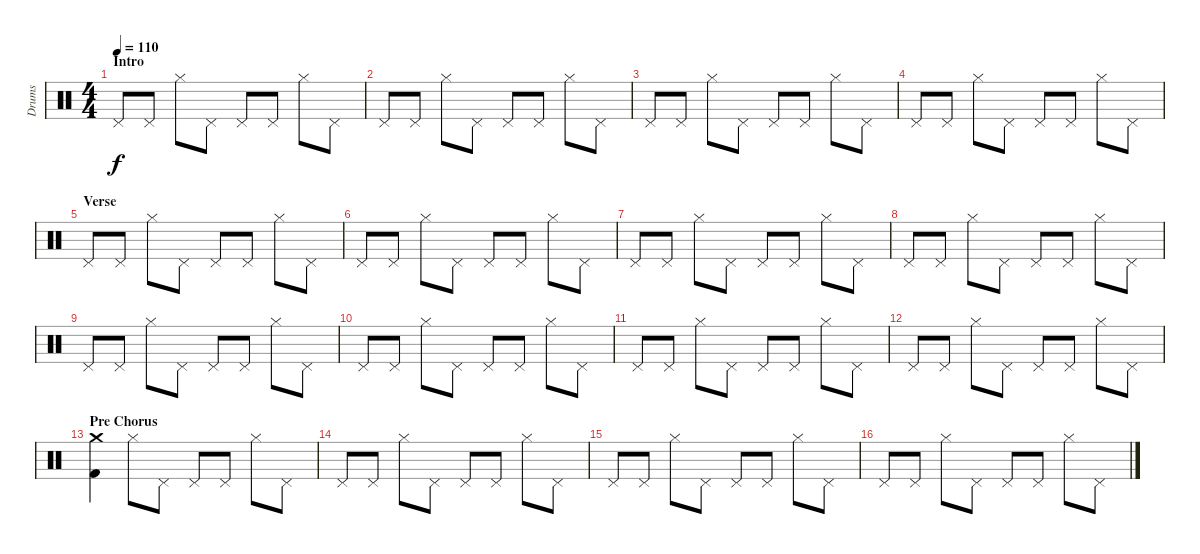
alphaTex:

\track ("Drums" "Drums") {instrument percussion}
\staff {score}
\articulation defaults
\ts (4 4)
\section ("" "Intro")
\tempo 110
\clef neutral
\ks c "Pedal Hi-Hat (hit)".8{dy f} "Pedal Hi-Hat (hit)".8 "Hi-Hat (closed)".8 "Pedal Hi-Hat (hit)".8 "Pedal Hi-Hat (hit)".8 "Pedal Hi-Hat (hit)".8 "Hi-Hat (closed)".8 "Pedal Hi-Hat (hit)".8
|
"Pedal Hi-Hat (hit)".8 "Pedal Hi-Hat (hit)".8 "Hi-Hat (closed)".8 "Pedal Hi-Hat (hit)".8 "Pedal Hi-Hat (hit)".8 "Pedal Hi-Hat (hit)".8 "Hi-Hat (closed)".8 "Pedal Hi-Hat (hit)".8 |
"Pedal Hi-Hat (hit)".8 "Pedal Hi-Hat (hit)".8 "Hi-Hat (closed)".8 "Pedal Hi-Hat (hit)".8 "Pedal Hi-Hat (hit)".8 "Pedal Hi-Hat (hit)".8 "Hi-Hat (closed)".8 "Pedal Hi-Hat (hit)".8 |
"Pedal Hi-Hat (hit)".8 "Pedal Hi-Hat (hit)".8 "Hi-Hat (closed)".8 "Pedal Hi-Hat (hit)".8 "Pedal Hi-Hat (hit)".8 "Pedal Hi-Hat (hit)".8 "Hi-Hat (closed)".8 "Pedal Hi-Hat (hit)".8 |
\section ("" "Verse")
"Pedal Hi-Hat (hit)".8 "Pedal Hi-Hat (hit)".8 "Hi-Hat (closed)".8 "Pedal Hi-Hat (hit)".8 "Pedal Hi-Hat (hit)".8 "Pedal Hi-Hat (hit)".8 "Hi-Hat (closed)".8 "Pedal Hi-Hat (hit)".8 |
"Pedal Hi-Hat (hit)".8 "Pedal Hi-Hat (hit)".8 "Hi-Hat (closed)".8 "Pedal Hi-Hat (hit)".8 "Pedal Hi-Hat (hit)".8 "Pedal Hi-Hat (hit)".8 "Hi-Hat (closed)".8 "Pedal Hi-Hat (hit)".8 |
"Pedal Hi-Hat (hit)".8 "Pedal Hi-Hat (hit)".8 "Hi-Hat (closed)".8 "Pedal Hi-Hat (hit)".8 "Pedal Hi-Hat (hit)".8 "Pedal Hi-Hat (hit)".8 "Hi-Hat (closed)".8 "Pedal Hi-Hat (hit)".8 |
"Pedal Hi-Hat (hit)".8 "Pedal Hi-Hat (hit)".8 "Hi-Hat (closed)".8 "Pedal Hi-Hat (hit)".8 "Pedal Hi-Hat (hit)".8 "Pedal Hi-Hat (hit)".8 "Hi-Hat (closed)".8 "Pedal Hi-Hat (hit)".8 |
"Pedal Hi-Hat (hit)".8 "Pedal Hi-Hat (hit)".8 "Hi-Hat (closed)".8 "Pedal Hi-Hat (hit)".8 "Pedal Hi-Hat (hit)".8 "Pedal Hi-Hat (hit)".8 "Hi-Hat (closed)".8 "Pedal Hi-Hat (hit)".8 |
"Pedal Hi-Hat (hit)".8 "Pedal Hi-Hat (hit)".8 "Hi-Hat (closed)".8 "Pedal Hi-Hat (hit)".8 "Pedal Hi-Hat (hit)".8 "Pedal Hi-Hat (hit)".8 "Hi-Hat (closed)".8 "Pedal Hi-Hat (hit)".8 |
"Pedal Hi-Hat (hit)".8 "Pedal Hi-Hat (hit)".8 "Hi-Hat (closed)".8 "Pedal Hi-Hat (hit)".8 "Pedal Hi-Hat (hit)".8 "Pedal Hi-Hat (hit)".8 "Hi-Hat (closed)".8 "Pedal Hi-Hat (hit)".8 |
"Pedal Hi-Hat (hit)".8 "Pedal Hi-Hat (hit)".8 "Hi-Hat (closed)".8 "Pedal Hi-Hat (hit)".8 "Pedal Hi-Hat (hit)".8 "Pedal Hi-Hat (hit)".8 "Hi-Hat (closed)".8 "Pedal Hi-Hat (hit)".8 |
\section ("" "Pre Chorus")
("Crash medium (hit)" "Kick (hit) 2").4 "Hi-Hat (closed)".8 "Pedal Hi-Hat (hit)".8 "Pedal Hi-Hat (hit)".8 "Pedal Hi-Hat (hit)".8 "Hi-Hat (closed)".8 "Pedal Hi-Hat (hit)".8 |
"Pedal Hi-Hat (hit)".8 "Pedal Hi-Hat (hit)".8 "Hi-Hat (closed)".8 "Pedal Hi-Hat (hit)".8 "Pedal Hi-Hat (hit)".8 "Pedal Hi-Hat (hit)".8 "Hi-Hat (closed)".8 "Pedal Hi-Hat (hit)".8 |
"Pedal Hi-Hat (hit)".8 "Pedal Hi-Hat (hit)".8 "Hi-Hat (closed)".8 "Pedal Hi-Hat (hit)".8 "Pedal Hi-Hat (hit)".8 "Pedal Hi-Hat (hit)".8 "Hi-Hat (closed)".8 "Pedal Hi-Hat (hit)".8 |
"Pedal Hi-Hat (hit)".8 "Pedal Hi-Hat (hit)".8 "Hi-Hat (closed)".8 "Pedal Hi-Hat (hit)".8 "Pedal Hi-Hat (hit)".8 "Pedal Hi-Hat (hit)".8 "Hi-Hat (closed)".8 "Pedal Hi-Hat (hit)".8
